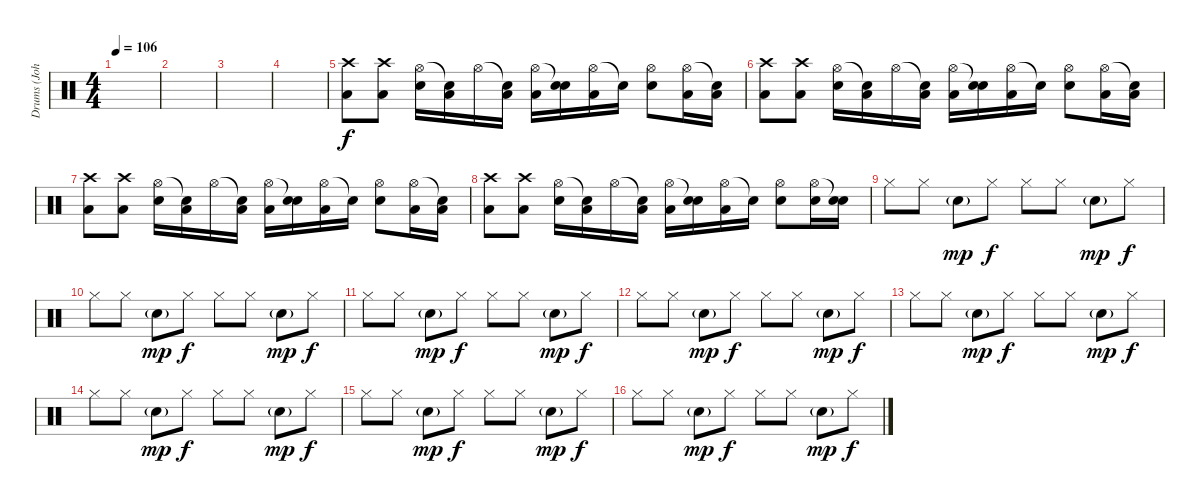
\track ("Drums (John)" "Drums (Joh") {instrument percussion}
\staff {score}
\articulation defaults
\ts (4 4)
\tempo 106
\clef neutral
\ks c
|
|
|
|
("Crash high (hit)" "Low Tom (hit)").8 ("Crash high (hit)" "Low Tom (hit)").8 ("Hi-Hat (open)" "Electric Snare (hit)").16 ("Snare (hit)"{t} "Low Tom (hit)").16 "Hi-Hat (open)".16 ("Snare (hit)"{t} "Low Tom (hit)").16 ("Hi-Hat (open)" "Low Tom (hit)").16 ("Snare (hit)"{t} "Electric Snare (hit)").16 ("Hi-Hat (open)" "Low Tom (hit)").16 "Snare (hit)"{t}.16 ("Hi-Hat (open)" "Electric Snare (hit)").8 ("Hi-Hat (open)" "Low Tom (hit)").16 ("Snare (hit)"{t} "Low Tom (hit)").16 |
("Crash high (hit)" "Low Tom (hit)").8 ("Crash high (hit)" "Low Tom (hit)").8 ("Hi-Hat (open)" "Electric Snare (hit)").16 ("Snare (hit)"{t} "Low Tom (hit)").16 "Hi-Hat (open)".16 ("Snare (hit)"{t} "Low Tom (hit)").16 ("Hi-Hat (open)" "Low Tom (hit)").16 ("Snare (hit)"{t} "Electric Snare (hit)").16 ("Hi-Hat (open)" "Low Tom (hit)").16 "Snare (hit)"{t}.16 ("Hi-Hat (open)" "Electric Snare (hit)").8 ("Hi-Hat (open)" "Low Tom (hit)").16 ("Snare (hit)"{t} "Low Tom (hit)").16 |
("Crash high (hit)" "Low Tom (hit)").8 ("Crash high (hit)" "Low Tom (hit)").8 ("Hi-Hat (open)" "Electric Snare (hit)").16 ("Snare (hit)"{t} "Low Tom (hit)").16 "Hi-Hat (open)".16 ("Snare (hit)"{t} "Low Tom (hit)").16 ("Hi-Hat (open)" "Low Tom (hit)").16 ("Snare (hit)"{t} "Electric Snare (hit)").16 ("Hi-Hat (open)" "Low Tom (hit)").16 "Snare (hit)"{t}.16 ("Hi-Hat (open)" "Electric Snare (hit)").8 ("Hi-Hat (open)" "Low Tom (hit)").16 ("Snare (hit)"{t} "Low Tom (hit)").16 |
("Crash high (hit)" "Low Tom (hit)").8 ("Crash high (hit)" "Low Tom (hit)").8 ("Hi-Hat (open)" "Electric Snare (hit)").16 ("Snare (hit)"{t} "Low Tom (hit)").16 "Hi-Hat (open)".16 ("Snare (hit)"{t} "Low Tom (hit)").16 ("Hi-Hat (open)" "Low Tom (hit)").16 ("Snare (hit)"{t} "Electric Snare (hit)").16 ("Hi-Hat (open)" "Low Tom (hit)").16 "Snare (hit)"{t}.16 ("Hi-Hat (open)" "Electric Snare (hit)").8 ("Hi-Hat (open)" "Electric Snare (hit)").16 ("Snare (hit)"{t} "Electric Snare (hit)").16 |
"Hi-Hat (closed)".8 "Hi-Hat (closed)".8 "Electric Snare (hit)"{g}.8{dy mp} "Hi-Hat (closed)".8{dy f} "Hi-Hat (closed)".8 "Hi-Hat (closed)".8 "Electric Snare (hit)"{g}.8{dy mp} "Hi-Hat (closed)".8{dy f} |
"Hi-Hat (closed)".8 "Hi-Hat (closed)".8 "Electric Snare (hit)"{g}.8{dy mp} "Hi-Hat (closed)".8{dy f} "Hi-Hat (closed)".8 "Hi-Hat (closed)".8 "Electric Snare (hit)"{g}.8{dy mp} "Hi-Hat (closed)".8{dy f} |
"Hi-Hat (closed)".8 "Hi-Hat (closed)".8 "Electric Snare (hit)"{g}.8{dy mp} "Hi-Hat (closed)".8{dy f} "Hi-Hat (closed)".8 "Hi-Hat (closed)".8 "Electric Snare (hit)"{g}.8{dy mp} "Hi-Hat (closed)".8{dy f} |
"Hi-Hat (closed)".8 "Hi-Hat (closed)".8 "Electric Snare (hit)"{g}.8{dy mp} "Hi-Hat (closed)".8{dy f} "Hi-Hat (closed)".8 "Hi-Hat (closed)".8 "Electric Snare (hit)"{g}.8{dy mp} "Hi-Hat (closed)".8{dy f} |
"Hi-Hat (closed)".8 "Hi-Hat (closed)".8 "Electric Snare (hit)"{g}.8{dy mp} "Hi-Hat (closed)".8{dy f} "Hi-Hat (closed)".8 "Hi-Hat (closed)".8 "Electric Snare (hit)"{g}.8{dy mp} "Hi-Hat (closed)".8{dy f} |
"Hi-Hat (closed)".8 "Hi-Hat (closed)".8 "Electric Snare (hit)"{g}.8{dy mp} "Hi-Hat (closed)".8{dy f} "Hi-Hat (closed)".8 "Hi-Hat (closed)".8 "Electric Snare (hit)"{g}.8{dy mp} "Hi-Hat (closed)".8{dy f} |
"Hi-Hat (closed)".8 "Hi-Hat (closed)".8 "Electric Snare (hit)"{g}.8{dy mp} "Hi-Hat (closed)".8{dy f} "Hi-Hat (closed)".8 "Hi-Hat (closed)".8 "Electric Snare (hit)"{g}.8{dy mp} "Hi-Hat (closed)".8{dy f} |
"Hi-Hat (closed)".8 "Hi-Hat (closed)".8 "Electric Snare (hit)"{g}.8{dy mp} "Hi-Hat (closed)".8{dy f} "Hi-Hat (closed)".8 "Hi-Hat (closed)".8 "Electric Snare (hit)"{g}.8{dy mp} "Hi-Hat (closed)".8{dy f}
